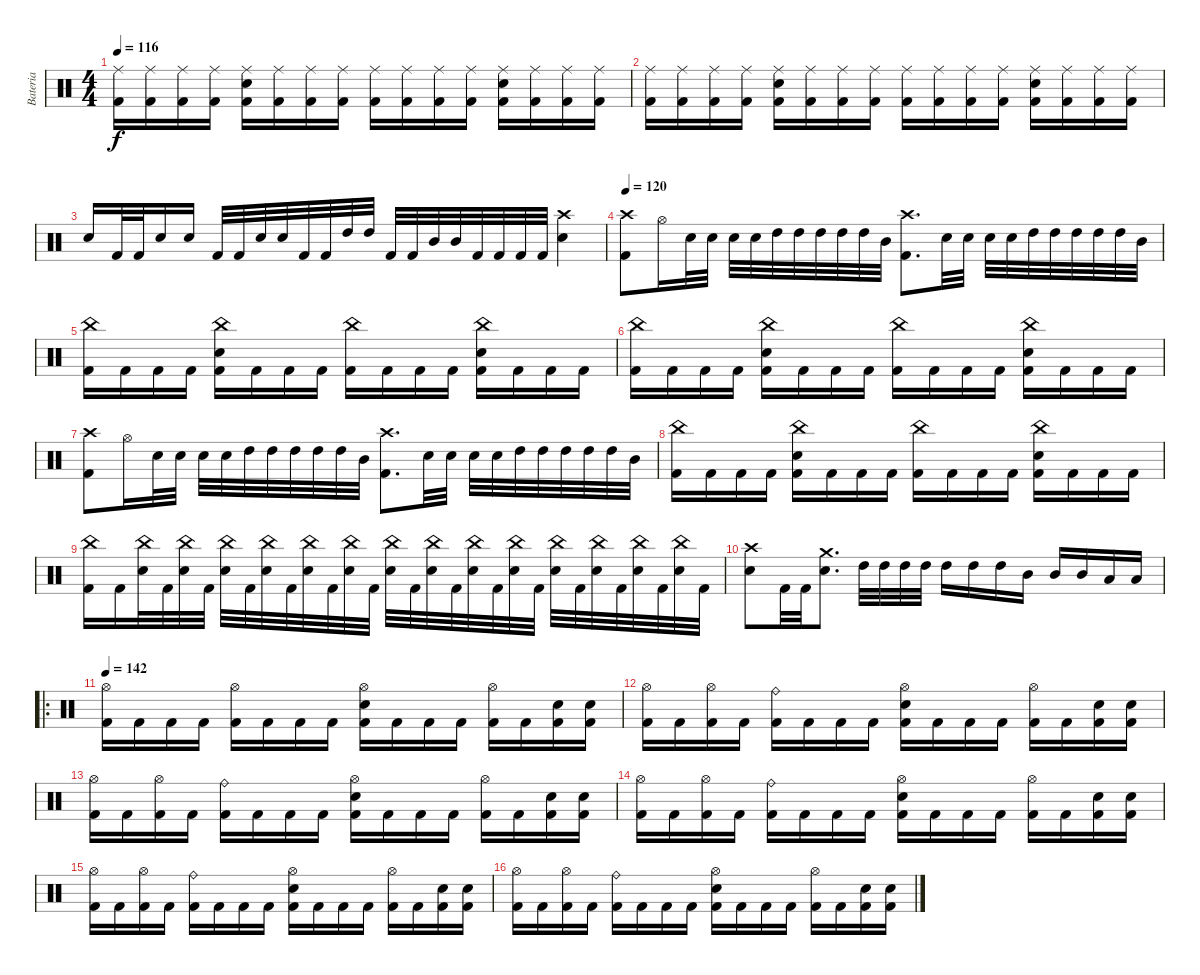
\track ("Bateria" "Bateria") {instrument percussion}
\staff {score}
\articulation defaults
\ts (4 4)
\tempo 116
\clef neutral
\ks c
("Ride (middle)" "Kick (hit) 2").16{dy f} ("Ride (middle)" "Kick (hit) 2").16 ("Ride (middle)" "Kick (hit) 2").16 ("Ride (middle)" "Kick (hit) 2").16 ("Ride (middle)" "Electric Snare (hit)" "Kick (hit) 2").16 ("Ride (middle)" "Kick (hit) 2").16 ("Ride (middle)" "Kick (hit) 2").16 ("Ride (middle)" "Kick (hit) 2").16 ("Ride (middle)" "Kick (hit) 2").16 ("Ride (middle)" "Kick (hit) 2").16 ("Ride (middle)" "Kick (hit) 2").16 ("Ride (middle)" "Kick (hit) 2").16 ("Ride (middle)" "Electric Snare (hit)" "Kick (hit) 2").16 ("Ride (middle)" "Kick (hit) 2").16 ("Ride (middle)" "Kick (hit) 2").16 ("Ride (middle)" "Kick (hit) 2").16 |
("Ride (middle)" "Kick (hit) 2").16 ("Ride (middle)" "Kick (hit) 2").16 ("Ride (middle)" "Kick (hit) 2").16 ("Ride (middle)" "Kick (hit) 2").16 ("Ride (middle)" "Electric Snare (hit)" "Kick (hit) 2").16 ("Ride (middle)" "Kick (hit) 2").16 ("Ride (middle)" "Kick (hit) 2").16 ("Ride (middle)" "Kick (hit) 2").16 ("Ride (middle)" "Kick (hit) 2").16 ("Ride (middle)" "Kick (hit) 2").16 ("Ride (middle)" "Kick (hit) 2").16 ("Ride (middle)" "Kick (hit) 2").16 ("Ride (middle)" "Electric Snare (hit)" "Kick (hit) 2").16 ("Ride (middle)" "Kick (hit) 2").16 ("Ride (middle)" "Kick (hit) 2").16 ("Ride (middle)" "Kick (hit) 2").16 |
"Electric Snare (hit)".16 "Kick (hit) 2".32 "Kick (hit) 2".32 "Electric Snare (hit)".16 "Electric Snare (hit)".16 "Kick (hit) 2".32 "Kick (hit) 2".32 "Electric Snare (hit)".32 "Electric Snare (hit)".32 "Kick (hit) 2".32 "Kick (hit) 2".32 "High Tom (hit)".32 "High Tom (hit)".32 "Kick (hit) 2".32 "Kick (hit) 2".32 "Mid Tom (hit)".32 "Mid Tom (hit)".32 "Kick (hit) 2".32 "Kick (hit) 2".32 "Kick (hit) 2".32 "Kick (hit) 2".32 ("Crash high (hit)" "Electric Snare (hit)").4 |
\tempo 120
("Crash high (hit)" "Kick (hit) 2").8 "Hi-Hat (open)".16 "Electric Snare (hit)".32 "Electric Snare (hit)".32 "Electric Snare (hit)".32 "Electric Snare (hit)".32 "High Tom (hit)".32 "High Tom (hit)".32 "High Tom (hit)".32 "High Tom (hit)".32 "High Tom (hit)".32 "Mid Tom (hit)".32 ("Crash high (hit)" "Kick (hit) 2").8{d} "Electric Snare (hit)".32 "Electric Snare (hit)".32 "Electric Snare (hit)".32 "Electric Snare (hit)".32 "High Tom (hit)".32 "High Tom (hit)".32 "High Tom (hit)".32 "High Tom (hit)".32 "High Tom (hit)".32 "Mid Tom (hit)".32 |
("China (hit)" "Kick (hit) 2").16 "Kick (hit) 2".16 "Kick (hit) 2".16 "Kick (hit) 2".16 ("China (hit)" "Electric Snare (hit)" "Kick (hit) 2").16 "Kick (hit) 2".16 "Kick (hit) 2".16 "Kick (hit) 2".16 ("China (hit)" "Kick (hit) 2").16 "Kick (hit) 2".16 "Kick (hit) 2".16 "Kick (hit) 2".16 ("China (hit)" "Electric Snare (hit)" "Kick (hit) 2").16 "Kick (hit) 2".16 "Kick (hit) 2".16 "Kick (hit) 2".16 |
("China (hit)" "Kick (hit) 2").16 "Kick (hit) 2".16 "Kick (hit) 2".16 "Kick (hit) 2".16 ("China (hit)" "Electric Snare (hit)" "Kick (hit) 2").16 "Kick (hit) 2".16 "Kick (hit) 2".16 "Kick (hit) 2".16 ("China (hit)" "Kick (hit) 2").16 "Kick (hit) 2".16 "Kick (hit) 2".16 "Kick (hit) 2".16 ("China (hit)" "Electric Snare (hit)" "Kick (hit) 2").16 "Kick (hit) 2".16 "Kick (hit) 2".16 "Kick (hit) 2".16 |
("Crash high (hit)" "Kick (hit) 2").8 "Hi-Hat (open)".16 "Electric Snare (hit)".32 "Electric Snare (hit)".32 "Electric Snare (hit)".32 "Electric Snare (hit)".32 "High Tom (hit)".32 "High Tom (hit)".32 "High Tom (hit)".32 "High Tom (hit)".32 "High Tom (hit)".32 "Mid Tom (hit)".32 ("Crash high (hit)" "Kick (hit) 2").8{d} "Electric Snare (hit)".32 "Electric Snare (hit)".32 "Electric Snare (hit)".32 "Electric Snare (hit)".32 "High Tom (hit)".32 "High Tom (hit)".32 "High Tom (hit)".32 "High Tom (hit)".32 "High Tom (hit)".32 "Mid Tom (hit)".32 |
("China (hit)" "Kick (hit) 2").16 "Kick (hit) 2".16 "Kick (hit) 2".16 "Kick (hit) 2".16 ("China (hit)" "Electric Snare (hit)" "Kick (hit) 2").16 "Kick (hit) 2".16 "Kick (hit) 2".16 "Kick (hit) 2".16 ("China (hit)" "Kick (hit) 2").16 "Kick (hit) 2".16 "Kick (hit) 2".16 "Kick (hit) 2".16 ("China (hit)" "Electric Snare (hit)" "Kick (hit) 2").16 "Kick (hit) 2".16 "Kick (hit) 2".16 "Kick (hit) 2".16 |
("China (hit)" "Kick (hit) 2").16 "Kick (hit) 2".16 ("China (hit)" "Electric Snare (hit)").32 "Kick (hit) 2".32 ("China (hit)" "Electric Snare (hit)").32 "Kick (hit) 2".32 ("China (hit)" "Electric Snare (hit)").32 "Kick (hit) 2".32 ("China (hit)" "Electric Snare (hit)").32 "Kick (hit) 2".32 ("China (hit)" "Electric Snare (hit)").32 "Kick (hit) 2".32 ("China (hit)" "Electric Snare (hit)").32 "Kick (hit) 2".32 ("China (hit)" "Electric Snare (hit)").32 "Kick (hit) 2".32 ("China (hit)" "Electric Snare (hit)").32 "Kick (hit) 2".32 ("China (hit)" "Electric Snare (hit)").32 "Kick (hit) 2".32 ("China (hit)" "Electric Snare (hit)").32 "Kick (hit) 2".32 ("China (hit)" "Electric Snare (hit)").32 "Kick (hit) 2".32 ("China (hit)" "Electric Snare (hit)").32 "Kick (hit) 2".32 ("China (hit)" "Electric Snare (hit)").32 "Kick (hit) 2".32 ("China (hit)" "Electric Snare (hit)").32 "Kick (hit) 2".32 |
("Crash high (hit)" "Electric Snare (hit)").8 "Kick (hit) 2".32 "Kick (hit) 2".32 ("Crash medium (hit)" "Electric Snare (hit)").8{d} "High Tom (hit)".32 "High Tom (hit)".32 "High Tom (hit)".32 "High Tom (hit)".32 "High Tom (hit)".16 "High Tom (hit)".16 "High Tom (hit)".16 "Mid Tom (hit)".16 "Mid Tom (hit)".16 "Mid Tom (hit)".16 "Low Tom (hit)".16 "Low Tom (hit)".16 |
\ro
\tempo 142
("Hi-Hat (open)" "Kick (hit) 2").16 "Kick (hit) 2".16 "Kick (hit) 2".16 "Kick (hit) 2".16 ("Hi-Hat (open)" "Kick (hit) 2").16 "Kick (hit) 2".16 "Kick (hit) 2".16 "Kick (hit) 2".16 ("Hi-Hat (open)" "Electric Snare (hit)" "Kick (hit) 2").16 "Kick (hit) 2".16 "Kick (hit) 2".16 "Kick (hit) 2".16 ("Hi-Hat (open)" "Kick (hit) 2").16 "Kick (hit) 2".16 ("Electric Snare (hit)" "Kick (hit) 2").16 ("Electric Snare (hit)" "Kick (hit) 2").16 |
("Hi-Hat (open)" "Kick (hit) 2").16 "Kick (hit) 2".16 ("Hi-Hat (open)" "Kick (hit) 2").16 "Kick (hit) 2".16 ("Ride (bell)" "Kick (hit) 2").16 "Kick (hit) 2".16 "Kick (hit) 2".16 "Kick (hit) 2".16 ("Hi-Hat (open)" "Electric Snare (hit)" "Kick (hit) 2").16 "Kick (hit) 2".16 "Kick (hit) 2".16 "Kick (hit) 2".16 ("Hi-Hat (open)" "Kick (hit) 2").16 "Kick (hit) 2".16 ("Electric Snare (hit)" "Kick (hit) 2").16 ("Electric Snare (hit)" "Kick (hit) 2").16 |
("Hi-Hat (open)" "Kick (hit) 2").16 "Kick (hit) 2".16 ("Hi-Hat (open)" "Kick (hit) 2").16 "Kick (hit) 2".16 ("Ride (bell)" "Kick (hit) 2").16 "Kick (hit) 2".16 "Kick (hit) 2".16 "Kick (hit) 2".16 ("Hi-Hat (open)" "Electric Snare (hit)" "Kick (hit) 2").16 "Kick (hit) 2".16 "Kick (hit) 2".16 "Kick (hit) 2".16 ("Hi-Hat (open)" "Kick (hit) 2").16 "Kick (hit) 2".16 ("Electric Snare (hit)" "Kick (hit) 2").16 ("Electric Snare (hit)" "Kick (hit) 2").16 |
("Hi-Hat (open)" "Kick (hit) 2").16 "Kick (hit) 2".16 ("Hi-Hat (open)" "Kick (hit) 2").16 "Kick (hit) 2".16 ("Ride (bell)" "Kick (hit) 2").16 "Kick (hit) 2".16 "Kick (hit) 2".16 "Kick (hit) 2".16 ("Hi-Hat (open)" "Electric Snare (hit)" "Kick (hit) 2").16 "Kick (hit) 2".16 "Kick (hit) 2".16 "Kick (hit) 2".16 ("Hi-Hat (open)" "Kick (hit) 2").16 "Kick (hit) 2".16 ("Electric Snare (hit)" "Kick (hit) 2").16 ("Electric Snare (hit)" "Kick (hit) 2").16 |
("Hi-Hat (open)" "Kick (hit) 2").16 "Kick (hit) 2".16 ("Hi-Hat (open)" "Kick (hit) 2").16 "Kick (hit) 2".16 ("Ride (bell)" "Kick (hit) 2").16 "Kick (hit) 2".16 "Kick (hit) 2".16 "Kick (hit) 2".16 ("Hi-Hat (open)" "Electric Snare (hit)" "Kick (hit) 2").16 "Kick (hit) 2".16 "Kick (hit) 2".16 "Kick (hit) 2".16 ("Hi-Hat (open)" "Kick (hit) 2").16 "Kick (hit) 2".16 ("Electric Snare (hit)" "Kick (hit) 2").16 ("Electric Snare (hit)" "Kick (hit) 2").16 |
("Hi-Hat (open)" "Kick (hit) 2").16 "Kick (hit) 2".16 ("Hi-Hat (open)" "Kick (hit) 2").16 "Kick (hit) 2".16 ("Ride (bell)" "Kick (hit) 2").16 "Kick (hit) 2".16 "Kick (hit) 2".16 "Kick (hit) 2".16 ("Hi-Hat (open)" "Electric Snare (hit)" "Kick (hit) 2").16 "Kick (hit) 2".16 "Kick (hit) 2".16 "Kick (hit) 2".16 ("Hi-Hat (open)" "Kick (hit) 2").16 "Kick (hit) 2".16 ("Electric Snare (hit)" "Kick (hit) 2").16 ("Electric Snare (hit)" "Kick (hit) 2").16
